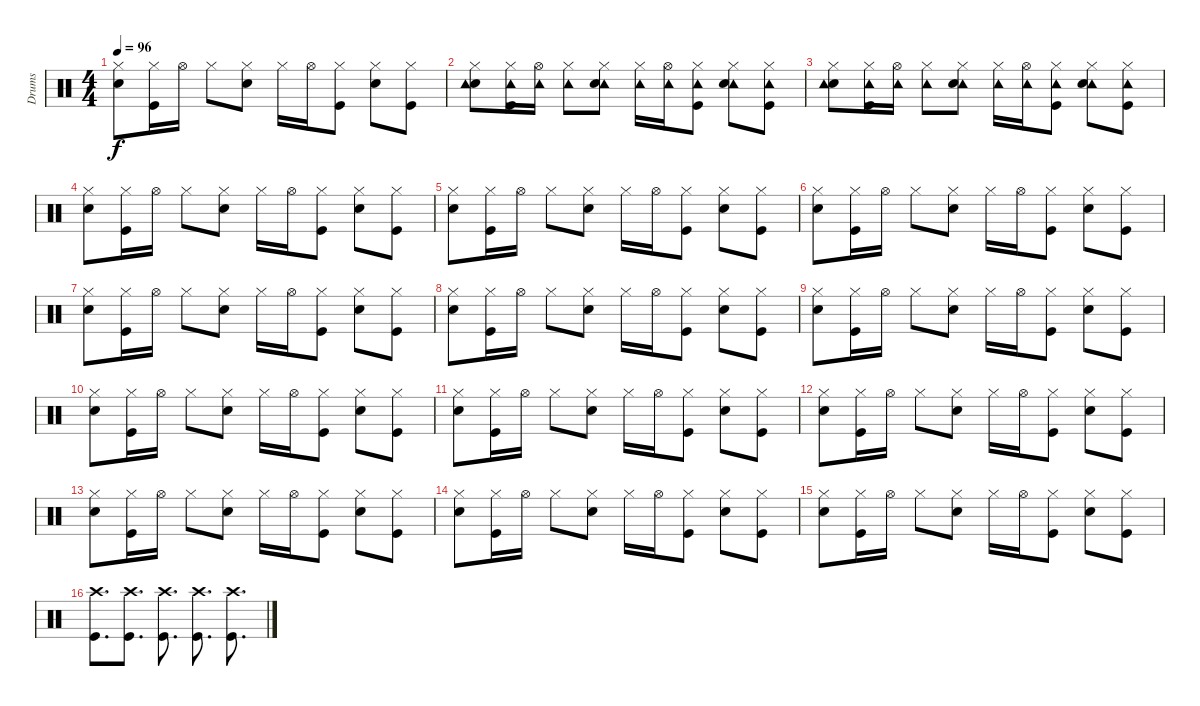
\track ("Drums" "Drums") {instrument percussion}
\staff {score}
\articulation defaults
\ts (4 4)
\tempo 96
\clef neutral
\ks c
("Hi-Hat (closed)" "Electric Snare (hit)").8{dy f} ("Hi-Hat (closed)" "Kick (hit)").16 "Hi-Hat (open)".16 "Hi-Hat (closed)".8 ("Hi-Hat (closed)" "Electric Snare (hit)").8 "Hi-Hat (closed)".16 "Hi-Hat (open)".16 ("Hi-Hat (closed)" "Kick (hit)").8 ("Hi-Hat (closed)" "Electric Snare (hit)").8 ("Hi-Hat (closed)" "Kick (hit)").8 |
("Hi-Hat (closed)" "Electric Snare (hit)" "Tambourine (hit)").8 ("Hi-Hat (closed)" "Tambourine (hit)" "Kick (hit)").16 ("Hi-Hat (open)" "Tambourine (hit)").16 ("Hi-Hat (closed)" "Tambourine (hit)").8 ("Hi-Hat (closed)" "Tambourine (hit)" "Electric Snare (hit)").8 ("Hi-Hat (closed)" "Tambourine (hit)").16 ("Hi-Hat (open)" "Tambourine (hit)").16 ("Hi-Hat (closed)" "Tambourine (hit)" "Kick (hit)").8 ("Hi-Hat (closed)" "Tambourine (hit)" "Electric Snare (hit)").8 ("Hi-Hat (closed)" "Tambourine (hit)" "Kick (hit)").8 |
("Hi-Hat (closed)" "Electric Snare (hit)" "Tambourine (hit)").8 ("Hi-Hat (closed)" "Tambourine (hit)" "Kick (hit)").16 ("Hi-Hat (open)" "Tambourine (hit)").16 ("Hi-Hat (closed)" "Tambourine (hit)").8 ("Hi-Hat (closed)" "Tambourine (hit)" "Electric Snare (hit)").8 ("Hi-Hat (closed)" "Tambourine (hit)").16 ("Hi-Hat (open)" "Tambourine (hit)").16 ("Hi-Hat (closed)" "Tambourine (hit)" "Kick (hit)").8 ("Hi-Hat (closed)" "Tambourine (hit)" "Electric Snare (hit)").8 ("Hi-Hat (closed)" "Tambourine (hit)" "Kick (hit)").8 |
("Hi-Hat (closed)" "Electric Snare (hit)").8 ("Hi-Hat (closed)" "Kick (hit)").16 "Hi-Hat (open)".16 "Hi-Hat (closed)".8 ("Hi-Hat (closed)" "Electric Snare (hit)").8 "Hi-Hat (closed)".16 "Hi-Hat (open)".16 ("Hi-Hat (closed)" "Kick (hit)").8 ("Hi-Hat (closed)" "Electric Snare (hit)").8 ("Hi-Hat (closed)" "Kick (hit)").8 |
("Hi-Hat (closed)" "Electric Snare (hit)").8 ("Hi-Hat (closed)" "Kick (hit)").16 "Hi-Hat (open)".16 "Hi-Hat (closed)".8 ("Hi-Hat (closed)" "Electric Snare (hit)").8 "Hi-Hat (closed)".16 "Hi-Hat (open)".16 ("Hi-Hat (closed)" "Kick (hit)").8 ("Hi-Hat (closed)" "Electric Snare (hit)").8 ("Hi-Hat (closed)" "Kick (hit)").8 |
("Hi-Hat (closed)" "Electric Snare (hit)").8 ("Hi-Hat (closed)" "Kick (hit)").16 "Hi-Hat (open)".16 "Hi-Hat (closed)".8 ("Hi-Hat (closed)" "Electric Snare (hit)").8 "Hi-Hat (closed)".16 "Hi-Hat (open)".16 ("Hi-Hat (closed)" "Kick (hit)").8 ("Hi-Hat (closed)" "Electric Snare (hit)").8 ("Hi-Hat (closed)" "Kick (hit)").8 |
("Hi-Hat (closed)" "Electric Snare (hit)").8 ("Hi-Hat (closed)" "Kick (hit)").16 "Hi-Hat (open)".16 "Hi-Hat (closed)".8 ("Hi-Hat (closed)" "Electric Snare (hit)").8 "Hi-Hat (closed)".16 "Hi-Hat (open)".16 ("Hi-Hat (closed)" "Kick (hit)").8 ("Hi-Hat (closed)" "Electric Snare (hit)").8 ("Hi-Hat (closed)" "Kick (hit)").8 |
("Hi-Hat (closed)" "Electric Snare (hit)").8 ("Hi-Hat (closed)" "Kick (hit)").16 "Hi-Hat (open)".16 "Hi-Hat (closed)".8 ("Hi-Hat (closed)" "Electric Snare (hit)").8 "Hi-Hat (closed)".16 "Hi-Hat (open)".16 ("Hi-Hat (closed)" "Kick (hit)").8 ("Hi-Hat (closed)" "Electric Snare (hit)").8 ("Hi-Hat (closed)" "Kick (hit)").8 |
("Hi-Hat (closed)" "Electric Snare (hit)").8 ("Hi-Hat (closed)" "Kick (hit)").16 "Hi-Hat (open)".16 "Hi-Hat (closed)".8 ("Hi-Hat (closed)" "Electric Snare (hit)").8 "Hi-Hat (closed)".16 "Hi-Hat (open)".16 ("Hi-Hat (closed)" "Kick (hit)").8 ("Hi-Hat (closed)" "Electric Snare (hit)").8 ("Hi-Hat (closed)" "Kick (hit)").8 |
("Hi-Hat (closed)" "Electric Snare (hit)").8 ("Hi-Hat (closed)" "Kick (hit)").16 "Hi-Hat (open)".16 "Hi-Hat (closed)".8 ("Hi-Hat (closed)" "Electric Snare (hit)").8 "Hi-Hat (closed)".16 "Hi-Hat (open)".16 ("Hi-Hat (closed)" "Kick (hit)").8 ("Hi-Hat (closed)" "Electric Snare (hit)").8 ("Hi-Hat (closed)" "Kick (hit)").8 |
("Hi-Hat (closed)" "Electric Snare (hit)").8 ("Hi-Hat (closed)" "Kick (hit)").16 "Hi-Hat (open)".16 "Hi-Hat (closed)".8 ("Hi-Hat (closed)" "Electric Snare (hit)").8 "Hi-Hat (closed)".16 "Hi-Hat (open)".16 ("Hi-Hat (closed)" "Kick (hit)").8 ("Hi-Hat (closed)" "Electric Snare (hit)").8 ("Hi-Hat (closed)" "Kick (hit)").8 |
("Hi-Hat (closed)" "Electric Snare (hit)").8 ("Hi-Hat (closed)" "Kick (hit)").16 "Hi-Hat (open)".16 "Hi-Hat (closed)".8 ("Hi-Hat (closed)" "Electric Snare (hit)").8 "Hi-Hat (closed)".16 "Hi-Hat (open)".16 ("Hi-Hat (closed)" "Kick (hit)").8 ("Hi-Hat (closed)" "Electric Snare (hit)").8 ("Hi-Hat (closed)" "Kick (hit)").8 |
("Hi-Hat (closed)" "Electric Snare (hit)").8 ("Hi-Hat (closed)" "Kick (hit)").16 "Hi-Hat (open)".16 "Hi-Hat (closed)".8 ("Hi-Hat (closed)" "Electric Snare (hit)").8 "Hi-Hat (closed)".16 "Hi-Hat (open)".16 ("Hi-Hat (closed)" "Kick (hit)").8 ("Hi-Hat (closed)" "Electric Snare (hit)").8 ("Hi-Hat (closed)" "Kick (hit)").8 |
("Hi-Hat (closed)" "Electric Snare (hit)").8 ("Hi-Hat (closed)" "Kick (hit)").16 "Hi-Hat (open)".16 "Hi-Hat (closed)".8 ("Hi-Hat (closed)" "Electric Snare (hit)").8 "Hi-Hat (closed)".16 "Hi-Hat (open)".16 ("Hi-Hat (closed)" "Kick (hit)").8 ("Hi-Hat (closed)" "Electric Snare (hit)").8 ("Hi-Hat (closed)" "Kick (hit)").8 |
("Hi-Hat (closed)" "Electric Snare (hit)").8 ("Hi-Hat (closed)" "Kick (hit)").16 "Hi-Hat (open)".16 "Hi-Hat (closed)".8 ("Hi-Hat (closed)" "Electric Snare (hit)").8 "Hi-Hat (closed)".16 "Hi-Hat (open)".16 ("Hi-Hat (closed)" "Kick (hit)").8 ("Hi-Hat (closed)" "Electric Snare (hit)").8 ("Hi-Hat (closed)" "Kick (hit)").8 |
("Crash high (hit)" "Kick (hit)").8{d} ("Crash high (hit)" "Kick (hit)").8{d} ("Crash high (hit)" "Kick (hit)").8{d} ("Crash high (hit)" "Kick (hit)").8{d} ("Crash high (hit)" "Kick (hit)").8{d}
